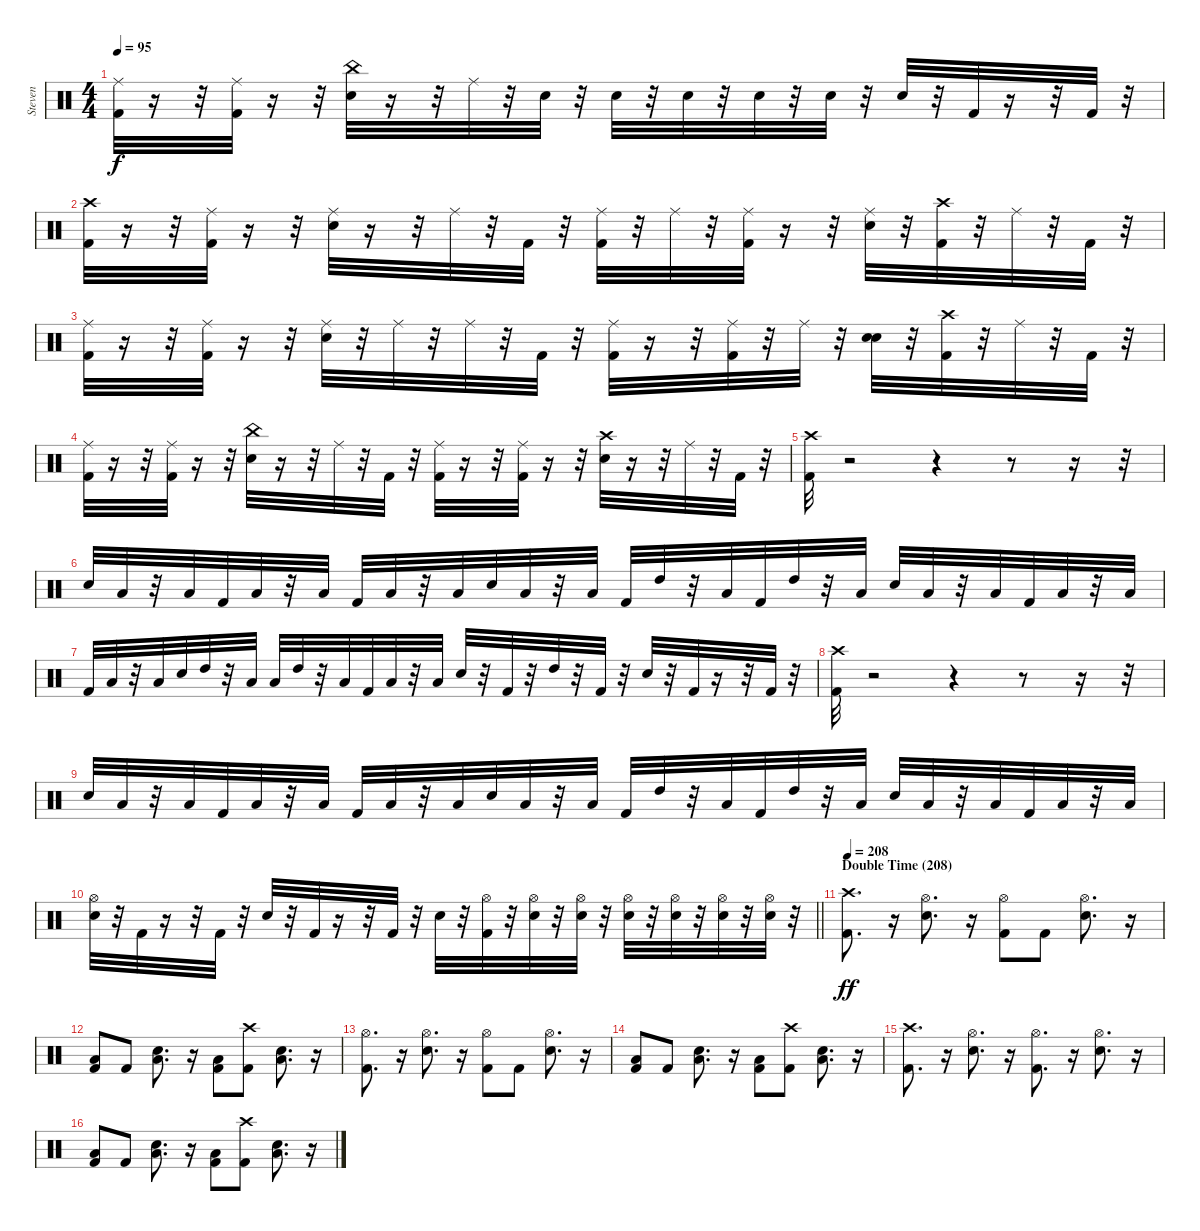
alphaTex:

\track ("Steven" "Steven") {instrument percussion}
\staff {score}
\articulation defaults
\ts (4 4)
\tempo 95
\clef neutral
\ks c
("Ride (middle)" "Kick (hit) 2").32{dy f} r.16 r.32 ("Kick (hit) 2" "Ride (middle)").32 r.16 r.32 ("Snare (hit) 2" "China (hit)").32 r.16 r.32 "Ride (middle)".32 r.32 "Snare (hit) 2".32 r.32 "Snare (hit) 2".32 r.32 "Snare (hit) 2".32 r.32 "Snare (hit) 2".32 r.32 "Snare (hit) 2".32 r.32 "Snare (hit) 2".32 r.32 "Kick (hit) 2".32 r.16 r.32 "Kick (hit) 2".32 r.32 |
("Crash high (hit)" "Kick (hit) 2").32 r.16 r.32 ("Kick (hit) 2" "Ride (middle)").32 r.16 r.32 ("Ride (middle)" "Snare (hit) 2").32 r.16 r.32 "Ride (middle)".32 r.32 "Kick (hit) 2".32 r.32 ("Kick (hit) 2" "Ride (middle)").32 r.32 "Ride (middle)".32 r.32 ("Ride (middle)" "Kick (hit) 2").32 r.16 r.32 ("Snare (hit) 2" "Ride (middle)").32 r.32 ("Crash high (hit)" "Kick (hit) 2").32 r.32 "Ride (middle)".32 r.32 "Kick (hit) 2".32 r.32 |
("Kick (hit) 2" "Ride (middle)").32 r.16 r.32 ("Kick (hit) 2" "Ride (middle)").32 r.16 r.32 ("Snare (hit) 2" "Ride (middle)").32 r.32 "Ride (middle)".32 r.32 "Ride (middle)".32 r.32 "Kick (hit) 2".32 r.32 ("Ride (middle)" "Kick (hit) 2").32 r.16 r.32 ("Kick (hit) 2" "Ride (middle)").32 r.32 "Ride (middle)".32 r.32 ("Electric Snare (hit)" "Snare (hit) 2").32 r.32 ("Kick (hit) 2" "Crash high (hit)").32 r.32 "Ride (middle)".32 r.32 "Kick (hit) 2".32 r.32 |
("Kick (hit) 2" "Ride (middle)").32 r.16 r.32 ("Kick (hit) 2" "Ride (middle)").32 r.16 r.32 ("China (hit)" "Snare (hit) 2").32 r.16 r.32 "Ride (middle)".32 r.32 "Kick (hit) 2".32 r.32 ("Kick (hit) 2" "Ride (middle)").32 r.16 r.32 ("Ride (middle)" "Kick (hit) 2").32 r.16 r.32 ("Snare (hit) 2" "Crash high (hit)").32 r.16 r.32 "Ride (middle)".32 r.32 "Kick (hit) 2".32 r.32 |
("Crash high (hit)" "Kick (hit) 2").32 r.2 r.4 r.8 r.16 r.32 |
"Snare (hit) 2".32 "Low Tom (hit)".32 r.32 "Low Floor Tom (hit)".32 "Kick (hit) 2".32 "Low Tom (hit)".32 r.32 "Low Floor Tom (hit)".32 "Kick (hit) 2".32 "Low Tom (hit)".32 r.32 "Low Floor Tom (hit)".32 "Snare (hit) 2".32 "Low Tom (hit)".32 r.32 "Low Floor Tom (hit)".32 "Kick (hit) 2".32 "High Tom (hit)".32 r.32 "Low Tom (hit)".32 "Kick (hit) 2".32 "High Tom (hit)".32 r.32 "Low Tom (hit)".32 "Snare (hit) 2".32 "Low Tom (hit)".32 r.32 "Low Floor Tom (hit)".32 "Kick (hit) 2".32 "Low Tom (hit)".32 r.32 "Low Floor Tom (hit)".32 |
"Kick (hit) 2".32 "Low Tom (hit)".32 r.32 "Low Floor Tom (hit)".32 "Snare (hit) 2".32 "High Tom (hit)".32 r.32 "Low Tom (hit)".32 "Low Floor Tom (hit)".32 "High Tom (hit)".32 r.32 "Low Tom (hit)".32 "Kick (hit) 2".32 "Low Tom (hit)".32 r.32 "Low Floor Tom (hit)".32 "Snare (hit) 2".32 r.32 "Kick (hit) 2".32 r.32 "High Tom (hit)".32 r.32 "Kick (hit) 2".32 r.32 "Snare (hit) 2".32 r.32 "Kick (hit) 2".32 r.16 r.32 "Kick (hit) 2".32 r.32 |
("Crash high (hit)" "Kick (hit) 2").32 r.2 r.4 r.8 r.16 r.32 |
"Snare (hit) 2".32 "Low Tom (hit)".32 r.32 "Low Floor Tom (hit)".32 "Kick (hit) 2".32 "Low Tom (hit)".32 r.32 "Low Floor Tom (hit)".32 "Kick (hit) 2".32 "Low Tom (hit)".32 r.32 "Low Floor Tom (hit)".32 "Snare (hit) 2".32 "Low Tom (hit)".32 r.32 "Low Floor Tom (hit)".32 "Kick (hit) 2".32 "High Tom (hit)".32 r.32 "Low Tom (hit)".32 "Kick (hit) 2".32 "High Tom (hit)".32 r.32 "Low Tom (hit)".32 "Snare (hit) 2".32 "Low Tom (hit)".32 r.32 "Low Floor Tom (hit)".32 "Kick (hit) 2".32 "Low Tom (hit)".32 r.32 "Low Floor Tom (hit)".32 |
\barLineRight lightlight
("Snare (hit) 2" "Hi-Hat (open)").32 r.32 "Kick (hit) 2".32 r.16 r.32 "Kick (hit) 2".32 r.32 "Snare (hit) 2".32 r.32 "Kick (hit) 2".32 r.16 r.32 "Kick (hit) 2".32 r.32 "Snare (hit) 2".32 r.32 ("Kick (hit) 2" "Hi-Hat (open)").32 r.32 ("Snare (hit) 2" "Hi-Hat (open)").32 r.32 ("Snare (hit) 2" "Hi-Hat (open)").32 r.32 ("Snare (hit) 2" "Hi-Hat (open)").32 r.32 ("Snare (hit) 2" "Hi-Hat (open)").32 r.32 ("Snare (hit) 2" "Hi-Hat (open)").32 r.32 ("Snare (hit) 2" "Hi-Hat (open)").32 r.32 |
\section ("" "Double Time (208)")
\tempo 208
("Kick (hit) 2" "Crash high (hit)").8{d dy ff} r.16 ("Snare (hit) 2" "Hi-Hat (open)").8{d} r.16 ("Kick (hit) 2" "Hi-Hat (open)").8 "Kick (hit) 2".8 ("Snare (hit) 2" "Hi-Hat (open)").8{d} r.16 |
("Kick (hit) 2" "Low Tom (hit)").8 "Kick (hit) 2".8 ("Snare (hit) 2" "Low Tom (hit)").8{d} r.16 ("Kick (hit) 2" "Low Tom (hit)").8 ("Kick (hit) 2" "Crash high (hit)").8 ("Snare (hit) 2" "Low Tom (hit)").8{d} r.16 |
("Kick (hit) 2" "Hi-Hat (open)").8{d} r.16 ("Snare (hit) 2" "Hi-Hat (open)").8{d} r.16 ("Kick (hit) 2" "Hi-Hat (open)").8 "Kick (hit) 2".8 ("Snare (hit) 2" "Hi-Hat (open)").8{d} r.16 |
("Kick (hit) 2" "Low Tom (hit)").8 "Kick (hit) 2".8 ("Snare (hit) 2" "Low Tom (hit)").8{d} r.16 ("Kick (hit) 2" "Low Tom (hit)").8 ("Kick (hit) 2" "Crash high (hit)").8 ("Snare (hit) 2" "Low Tom (hit)").8{d} r.16 |
("Kick (hit) 2" "Crash high (hit)").8{d} r.16 ("Snare (hit) 2" "Hi-Hat (open)").8{d} r.16 ("Hi-Hat (open)" "Kick (hit) 2").8{d} r.16 ("Hi-Hat (open)" "Snare (hit) 2").8{d} r.16 |
("Low Tom (hit)" "Kick (hit) 2").8 "Kick (hit) 2".8 ("Snare (hit) 2" "Low Tom (hit)").8{d} r.16 ("Kick (hit) 2" "Low Tom (hit)").8 ("Kick (hit) 2" "Crash high (hit)").8 ("Snare (hit) 2" "Low Tom (hit)").8{d} r.16
